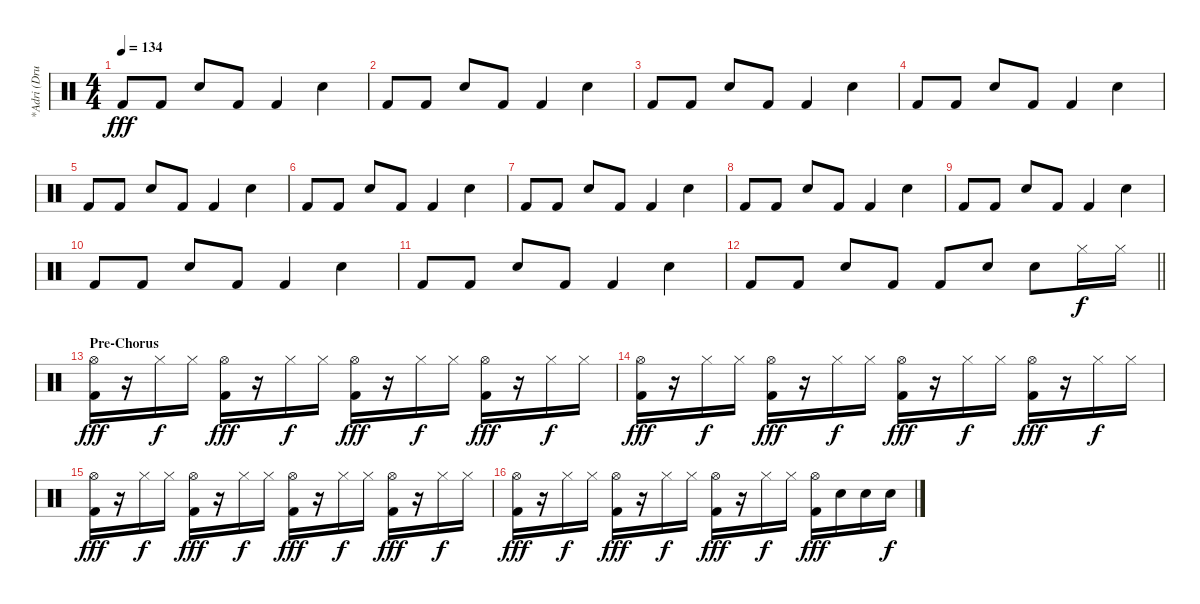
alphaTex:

\track ("*Adri (Drum)" "*Adri (Dru") {instrument percussion}
\staff {score}
\articulation defaults
\ts (4 4)
\tempo 134
\clef neutral
\ks c "Kick (hit) 2".8{dy fff} "Kick (hit) 2".8 "Snare (hit) 2".8 "Kick (hit) 2".8 "Kick (hit) 2".4 "Snare (hit) 2".4
|
"Kick (hit) 2".8 "Kick (hit) 2".8 "Snare (hit) 2".8 "Kick (hit) 2".8 "Kick (hit) 2".4 "Snare (hit) 2".4 |
"Kick (hit) 2".8 "Kick (hit) 2".8 "Snare (hit) 2".8 "Kick (hit) 2".8 "Kick (hit) 2".4 "Snare (hit) 2".4 |
"Kick (hit) 2".8 "Kick (hit) 2".8 "Snare (hit) 2".8 "Kick (hit) 2".8 "Kick (hit) 2".4 "Snare (hit) 2".4 |
"Kick (hit) 2".8 "Kick (hit) 2".8 "Snare (hit) 2".8 "Kick (hit) 2".8 "Kick (hit) 2".4 "Snare (hit) 2".4 |
"Kick (hit) 2".8 "Kick (hit) 2".8 "Snare (hit) 2".8 "Kick (hit) 2".8 "Kick (hit) 2".4 "Snare (hit) 2".4 |
"Kick (hit) 2".8 "Kick (hit) 2".8 "Snare (hit) 2".8 "Kick (hit) 2".8 "Kick (hit) 2".4 "Snare (hit) 2".4 |
"Kick (hit) 2".8 "Kick (hit) 2".8 "Snare (hit) 2".8 "Kick (hit) 2".8 "Kick (hit) 2".4 "Snare (hit) 2".4 |
"Kick (hit) 2".8 "Kick (hit) 2".8 "Snare (hit) 2".8 "Kick (hit) 2".8 "Kick (hit) 2".4 "Snare (hit) 2".4 |
"Kick (hit) 2".8 "Kick (hit) 2".8 "Snare (hit) 2".8 "Kick (hit) 2".8 "Kick (hit) 2".4 "Snare (hit) 2".4 |
"Kick (hit) 2".8 "Kick (hit) 2".8 "Snare (hit) 2".8 "Kick (hit) 2".8 "Kick (hit) 2".4 "Snare (hit) 2".4 |
\barLineRight lightlight "Kick (hit) 2".8 "Kick (hit) 2".8 "Snare (hit) 2".8 "Kick (hit) 2".8 "Kick (hit) 2".8 "Snare (hit) 2".8 "Snare (hit) 2".8 "Hi-Hat (closed)".16{dy f} "Hi-Hat (closed)".16
|
\section ("" "Pre-Chorus")
("Hi-Hat (open)" "Kick (hit) 2").16{dy fff} r.16 "Hi-Hat (closed)".16{dy f} "Hi-Hat (closed)".16 ("Hi-Hat (open)" "Kick (hit) 2").16{dy fff} r.16 "Hi-Hat (closed)".16{dy f} "Hi-Hat (closed)".16 ("Hi-Hat (open)" "Kick (hit) 2").16{dy fff} r.16 "Hi-Hat (closed)".16{dy f} "Hi-Hat (closed)".16 ("Hi-Hat (open)" "Kick (hit) 2").16{dy fff} r.16 "Hi-Hat (closed)".16{dy f} "Hi-Hat (closed)".16 |
("Hi-Hat (open)" "Kick (hit) 2").16{dy fff} r.16 "Hi-Hat (closed)".16{dy f} "Hi-Hat (closed)".16 ("Hi-Hat (open)" "Kick (hit) 2").16{dy fff} r.16 "Hi-Hat (closed)".16{dy f} "Hi-Hat (closed)".16 ("Hi-Hat (open)" "Kick (hit) 2").16{dy fff} r.16 "Hi-Hat (closed)".16{dy f} "Hi-Hat (closed)".16 ("Hi-Hat (open)" "Kick (hit) 2").16{dy fff} r.16 "Hi-Hat (closed)".16{dy f} "Hi-Hat (closed)".16 |
("Hi-Hat (open)" "Kick (hit) 2").16{dy fff} r.16 "Hi-Hat (closed)".16{dy f} "Hi-Hat (closed)".16 ("Hi-Hat (open)" "Kick (hit) 2").16{dy fff} r.16 "Hi-Hat (closed)".16{dy f} "Hi-Hat (closed)".16 ("Hi-Hat (open)" "Kick (hit) 2").16{dy fff} r.16 "Hi-Hat (closed)".16{dy f} "Hi-Hat (closed)".16 ("Hi-Hat (open)" "Kick (hit) 2").16{dy fff} r.16 "Hi-Hat (closed)".16{dy f} "Hi-Hat (closed)".16 |
("Hi-Hat (open)" "Kick (hit) 2").16{dy fff} r.16 "Hi-Hat (closed)".16{dy f} "Hi-Hat (closed)".16 ("Hi-Hat (open)" "Kick (hit) 2").16{dy fff} r.16 "Hi-Hat (closed)".16{dy f} "Hi-Hat (closed)".16 ("Hi-Hat (open)" "Kick (hit) 2").16{dy fff} r.16 "Hi-Hat (closed)".16{dy f} "Hi-Hat (closed)".16 ("Hi-Hat (open)" "Kick (hit) 2").16{dy fff} "Snare (hit) 2".16 "Snare (hit) 2".16 "Snare (hit) 2".16{dy f}
